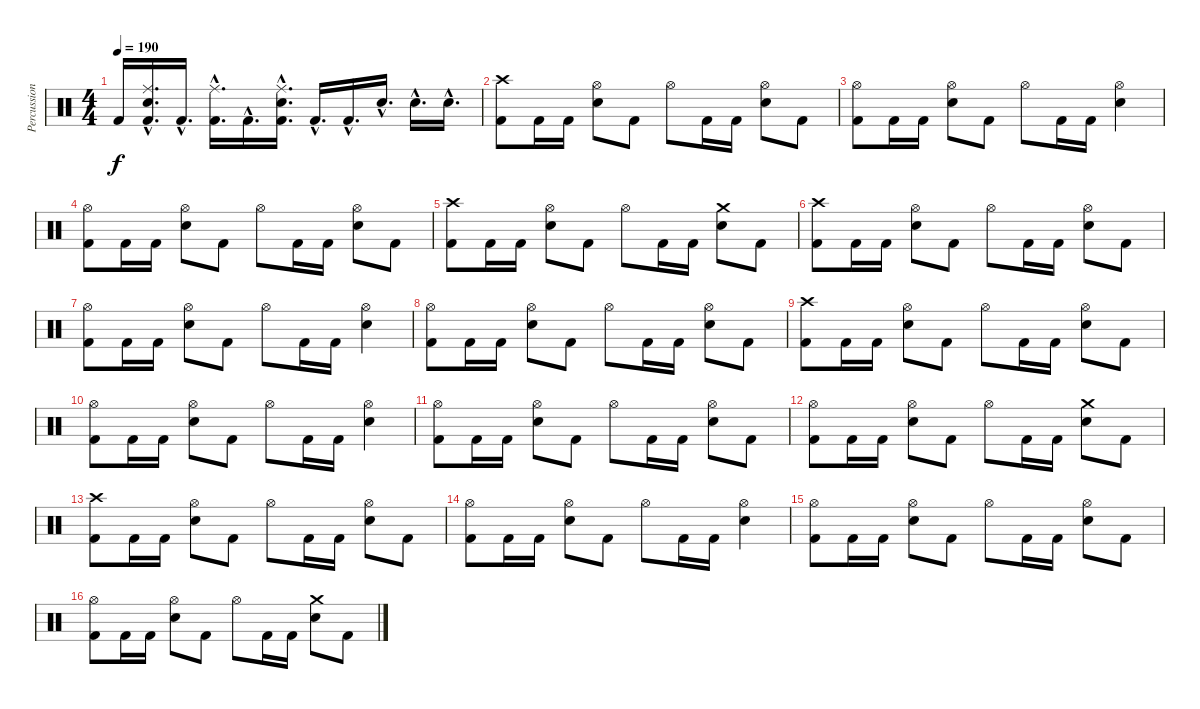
\track ("Percussion" "Percussion") {instrument percussion}
\staff {score}
\articulation defaults
\ts (4 4)
\tempo 190
\clef neutral
\ks c "Kick (hit) 2"{t}.16{dy f}
("Ride (middle)"{hac} "Snare (hit) 2"{hac} "Kick (hit) 2"{hac}).16{d} "Kick (hit) 2"{hac}.16{d} ("Ride (middle)"{hac} "Kick (hit) 2"{hac}).16{d} "Kick (hit) 2"{hac}.16{d} ("Ride (middle)"{hac} "Snare (hit) 2"{hac} "Kick (hit) 2"{hac}).16{d} "Kick (hit) 2"{hac}.16{d} "Kick (hit) 2"{hac}.16{d} "Snare (hit) 2"{hac}.16{d} "Snare (hit) 2"{hac}.16{d} "Snare (hit) 2"{hac}.16{d} |
("Crash high (hit)" "Kick (hit) 2").8 "Kick (hit) 2".16 "Kick (hit) 2".16 ("Hi-Hat (open)" "Snare (hit) 2").8 "Kick (hit) 2".8 "Hi-Hat (open)".8 "Kick (hit) 2".16 "Kick (hit) 2".16 ("Hi-Hat (open)" "Snare (hit) 2").8 "Kick (hit) 2".8 |
("Hi-Hat (open)" "Kick (hit) 2").8 "Kick (hit) 2".16 "Kick (hit) 2".16 ("Hi-Hat (open)" "Snare (hit) 2").8 "Kick (hit) 2".8 "Hi-Hat (open)".8 "Kick (hit) 2".16 "Kick (hit) 2".16 ("Hi-Hat (open)" "Snare (hit) 2").4 |
("Hi-Hat (open)" "Kick (hit) 2").8 "Kick (hit) 2".16 "Kick (hit) 2".16 ("Hi-Hat (open)" "Snare (hit) 2").8 "Kick (hit) 2".8 "Hi-Hat (open)".8 "Kick (hit) 2".16 "Kick (hit) 2".16 ("Hi-Hat (open)" "Snare (hit) 2").8 "Kick (hit) 2".8 |
("Crash high (hit)" "Kick (hit) 2").8 "Kick (hit) 2".16 "Kick (hit) 2".16 ("Hi-Hat (open)" "Snare (hit) 2").8 "Kick (hit) 2".8 "Hi-Hat (open)".8 "Kick (hit) 2".16 "Kick (hit) 2".16 ("Crash medium (hit)" "Snare (hit) 2").8 "Kick (hit) 2".8 |
("Crash high (hit)" "Kick (hit) 2").8 "Kick (hit) 2".16 "Kick (hit) 2".16 ("Hi-Hat (open)" "Snare (hit) 2").8 "Kick (hit) 2".8 "Hi-Hat (open)".8 "Kick (hit) 2".16 "Kick (hit) 2".16 ("Hi-Hat (open)" "Snare (hit) 2").8 "Kick (hit) 2".8 |
("Hi-Hat (open)" "Kick (hit) 2").8 "Kick (hit) 2".16 "Kick (hit) 2".16 ("Hi-Hat (open)" "Snare (hit) 2").8 "Kick (hit) 2".8 "Hi-Hat (open)".8 "Kick (hit) 2".16 "Kick (hit) 2".16 ("Hi-Hat (open)" "Snare (hit) 2").4 |
("Hi-Hat (open)" "Kick (hit) 2").8 "Kick (hit) 2".16 "Kick (hit) 2".16 ("Hi-Hat (open)" "Snare (hit) 2").8 "Kick (hit) 2".8 "Hi-Hat (open)".8 "Kick (hit) 2".16 "Kick (hit) 2".16 ("Hi-Hat (open)" "Snare (hit) 2").8 "Kick (hit) 2".8 |
("Crash high (hit)" "Kick (hit) 2").8 "Kick (hit) 2".16 "Kick (hit) 2".16 ("Hi-Hat (open)" "Snare (hit) 2").8 "Kick (hit) 2".8 "Hi-Hat (open)".8 "Kick (hit) 2".16 "Kick (hit) 2".16 ("Hi-Hat (open)" "Snare (hit) 2").8 "Kick (hit) 2".8 |
("Hi-Hat (open)" "Kick (hit) 2").8 "Kick (hit) 2".16 "Kick (hit) 2".16 ("Hi-Hat (open)" "Snare (hit) 2").8 "Kick (hit) 2".8 "Hi-Hat (open)".8 "Kick (hit) 2".16 "Kick (hit) 2".16 ("Hi-Hat (open)" "Snare (hit) 2").4 |
("Hi-Hat (open)" "Kick (hit) 2").8 "Kick (hit) 2".16 "Kick (hit) 2".16 ("Hi-Hat (open)" "Snare (hit) 2").8 "Kick (hit) 2".8 "Hi-Hat (open)".8 "Kick (hit) 2".16 "Kick (hit) 2".16 ("Hi-Hat (open)" "Snare (hit) 2").8 "Kick (hit) 2".8 |
("Hi-Hat (open)" "Kick (hit) 2").8 "Kick (hit) 2".16 "Kick (hit) 2".16 ("Hi-Hat (open)" "Snare (hit) 2").8 "Kick (hit) 2".8 "Hi-Hat (open)".8 "Kick (hit) 2".16 "Kick (hit) 2".16 ("Crash medium (hit)" "Snare (hit) 2").8 "Kick (hit) 2".8 |
("Crash high (hit)" "Kick (hit) 2").8 "Kick (hit) 2".16 "Kick (hit) 2".16 ("Hi-Hat (open)" "Snare (hit) 2").8 "Kick (hit) 2".8 "Hi-Hat (open)".8 "Kick (hit) 2".16 "Kick (hit) 2".16 ("Hi-Hat (open)" "Snare (hit) 2").8 "Kick (hit) 2".8 |
("Hi-Hat (open)" "Kick (hit) 2").8 "Kick (hit) 2".16 "Kick (hit) 2".16 ("Hi-Hat (open)" "Snare (hit) 2").8 "Kick (hit) 2".8 "Hi-Hat (open)".8 "Kick (hit) 2".16 "Kick (hit) 2".16 ("Hi-Hat (open)" "Snare (hit) 2").4 |
("Hi-Hat (open)" "Kick (hit) 2").8 "Kick (hit) 2".16 "Kick (hit) 2".16 ("Hi-Hat (open)" "Snare (hit) 2").8 "Kick (hit) 2".8 "Hi-Hat (open)".8 "Kick (hit) 2".16 "Kick (hit) 2".16 ("Hi-Hat (open)" "Snare (hit) 2").8 "Kick (hit) 2".8 |
("Hi-Hat (open)" "Kick (hit) 2").8 "Kick (hit) 2".16 "Kick (hit) 2".16 ("Hi-Hat (open)" "Snare (hit) 2").8 "Kick (hit) 2".8 "Hi-Hat (open)".8 "Kick (hit) 2".16 "Kick (hit) 2".16 ("Crash medium (hit)" "Snare (hit) 2").8 "Kick (hit) 2".8
